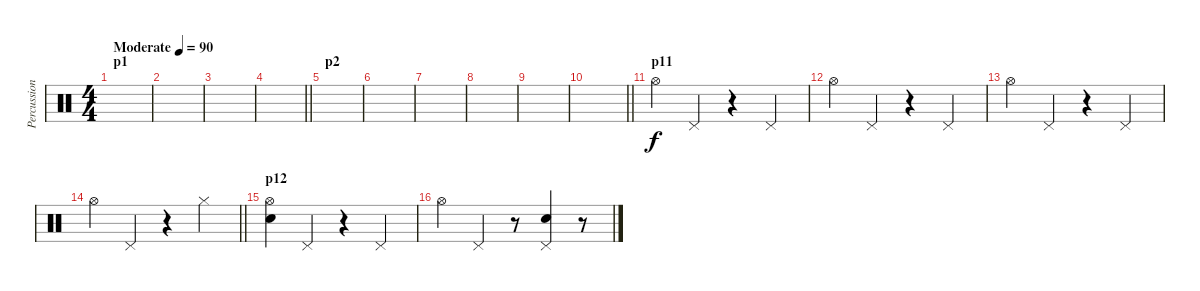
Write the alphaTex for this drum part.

\track ("Percussion" "Percussion") {instrument percussion bank 3}
\staff {score}
\articulation defaults
\ts (4 4)
\section ("" "p1")
\tempo (90 "Moderate")
\clef neutral
\ks c
|
|
|
\barLineRight lightlight
|
\section ("" "p2")
|
|
|
|
|
\barLineRight lightlight
|
\section ("" "p11")
"Hi-Hat (open)".4 "Pedal Hi-Hat (hit)".4 r.4 "Pedal Hi-Hat (hit)".4 |
"Hi-Hat (open)".4 "Pedal Hi-Hat (hit)".4 r.4 "Pedal Hi-Hat (hit)".4 |
"Hi-Hat (open)".4 "Pedal Hi-Hat (hit)".4 r.4 "Pedal Hi-Hat (hit)".4 |
\barLineRight lightlight "Hi-Hat (open)".4 "Pedal Hi-Hat (hit)".4
r.4 "Hi-Hat (closed)".4 |
\section ("" "p12")
("Hi-Hat (open)" "Electric Snare (hit)").4 "Pedal Hi-Hat (hit)".4 r.4 "Pedal Hi-Hat (hit)".4 |
"Hi-Hat (open)".4 "Pedal Hi-Hat (hit)".4 r.8 ("Pedal Hi-Hat (hit)" "Electric Snare (hit)").4 r.8
